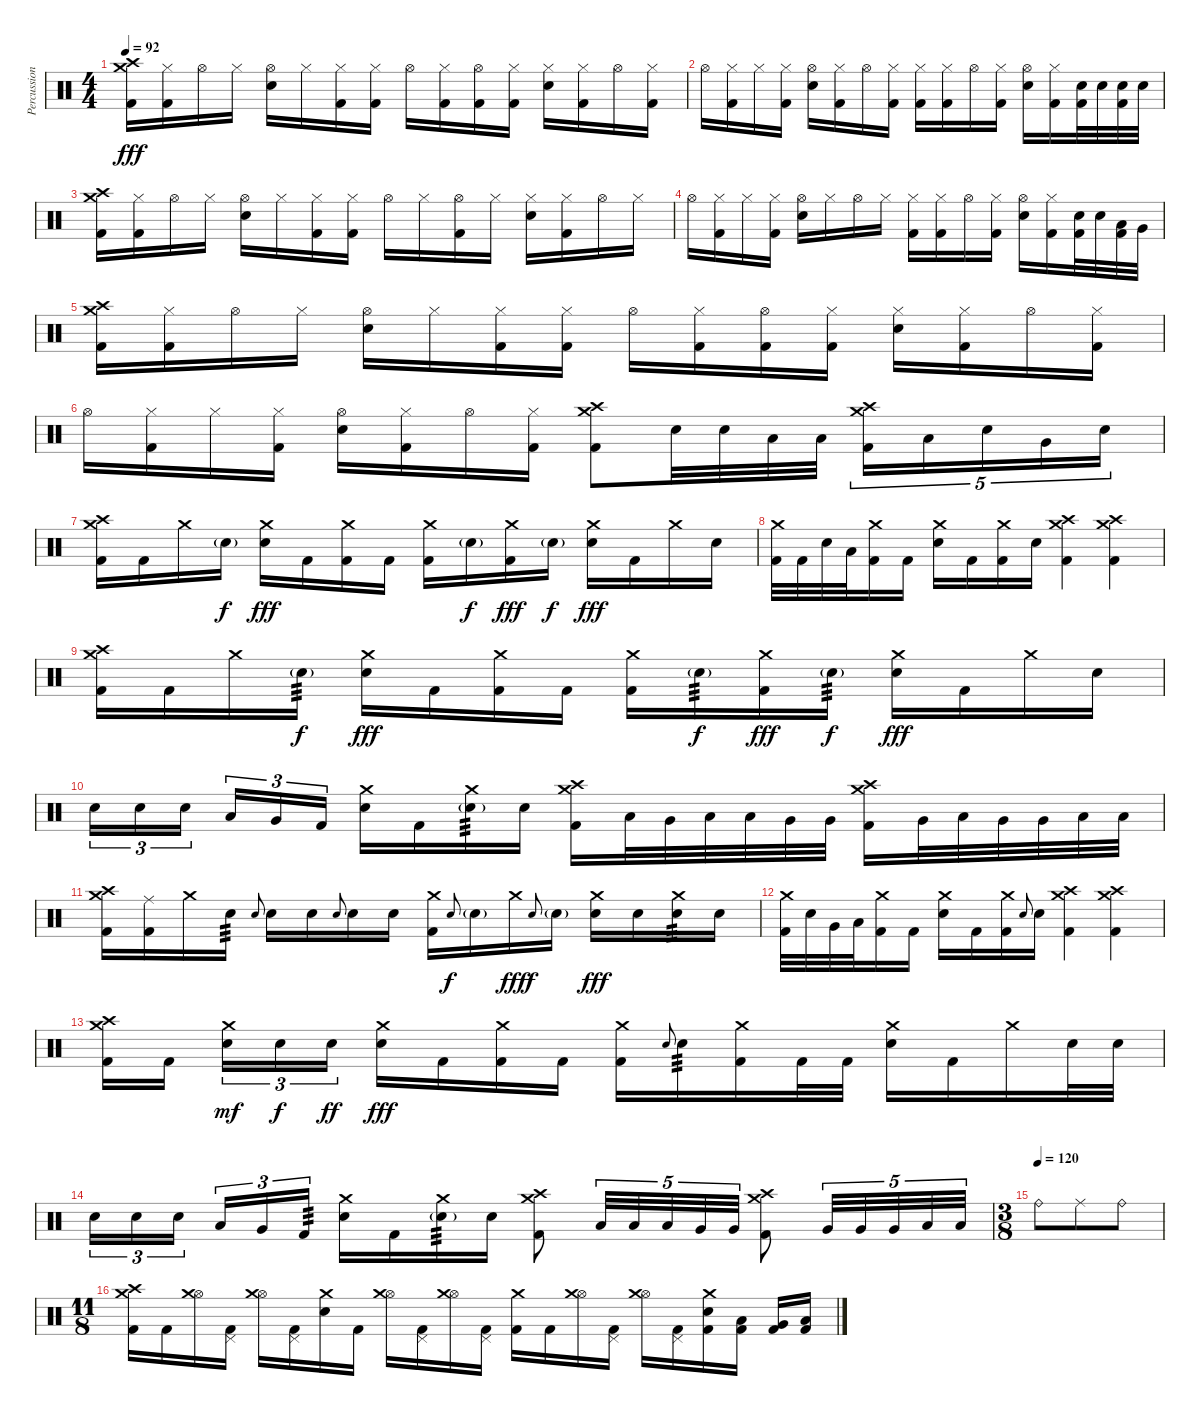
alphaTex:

\track ("Percussion" "Percussion") {instrument percussion}
\staff {score}
\articulation defaults
\ts (4 4)
\tempo 92
\clef neutral
\ks c
("Crash high (hit)" "Crash medium (hit)" "Kick (hit) 2").16{dy fff} ("Hi-Hat (closed)" "Kick (hit) 2").16 "Hi-Hat (open)".16 "Hi-Hat (closed)".16 ("Hi-Hat (open)" "Electric Snare (hit)").16 "Hi-Hat (closed)".16 ("Hi-Hat (closed)" "Kick (hit) 2").16 ("Hi-Hat (closed)" "Kick (hit) 2").16 "Hi-Hat (open)".16 ("Hi-Hat (closed)" "Kick (hit) 2").16 ("Hi-Hat (open)" "Kick (hit) 2").16 ("Hi-Hat (closed)" "Kick (hit) 2").16 ("Hi-Hat (closed)" "Electric Snare (hit)").16 ("Hi-Hat (closed)" "Kick (hit) 2").16 "Hi-Hat (open)".16 ("Hi-Hat (closed)" "Kick (hit) 2").16 |
"Hi-Hat (open)".16 ("Hi-Hat (closed)" "Kick (hit) 2").16 "Hi-Hat (closed)".16 ("Hi-Hat (closed)" "Kick (hit) 2").16 ("Hi-Hat (open)" "Electric Snare (hit)").16 ("Hi-Hat (closed)" "Kick (hit) 2").16 "Hi-Hat (open)".16 ("Hi-Hat (closed)" "Kick (hit) 2").16 ("Hi-Hat (closed)" "Kick (hit) 2").16 ("Hi-Hat (closed)" "Kick (hit) 2").16 "Hi-Hat (open)".16 ("Hi-Hat (closed)" "Kick (hit) 2").16 ("Hi-Hat (open)" "Electric Snare (hit)").16 ("Hi-Hat (closed)" "Kick (hit) 2").16 ("Electric Snare (hit)" "Kick (hit) 2").32 "Electric Snare (hit)".32 ("Electric Snare (hit)" "Kick (hit) 2").32 "Electric Snare (hit)".32 |
("Crash high (hit)" "Crash medium (hit)" "Kick (hit) 2").16 ("Hi-Hat (closed)" "Kick (hit) 2").16 "Hi-Hat (open)".16 "Hi-Hat (closed)".16 ("Hi-Hat (open)" "Electric Snare (hit)").16 "Hi-Hat (closed)".16 ("Hi-Hat (closed)" "Kick (hit) 2").16 ("Hi-Hat (closed)" "Kick (hit) 2").16 "Hi-Hat (open)".16 "Hi-Hat (closed)".16 ("Hi-Hat (open)" "Kick (hit) 2").16 "Hi-Hat (closed)".16 ("Hi-Hat (closed)" "Electric Snare (hit)").16 ("Hi-Hat (closed)" "Kick (hit) 2").16 "Hi-Hat (open)".16 "Hi-Hat (closed)".16 |
"Hi-Hat (open)".16 ("Hi-Hat (closed)" "Kick (hit) 2").16 "Hi-Hat (closed)".16 ("Hi-Hat (closed)" "Kick (hit) 2").16 ("Hi-Hat (open)" "Electric Snare (hit)").16 "Hi-Hat (closed)".16 "Hi-Hat (open)".16 "Hi-Hat (closed)".16 ("Hi-Hat (closed)" "Kick (hit) 2").16 ("Hi-Hat (closed)" "Kick (hit) 2").16 "Hi-Hat (open)".16 ("Hi-Hat (closed)" "Kick (hit) 2").16 ("Hi-Hat (open)" "Electric Snare (hit)").16 ("Hi-Hat (closed)" "Kick (hit) 2").16 ("Electric Snare (hit)" "Kick (hit) 2").32 "Electric Snare (hit)".32 ("Low Tom (hit)" "Kick (hit) 2").32 "Very Low Tom (hit)".32 |
("Crash high (hit)" "Crash medium (hit)" "Kick (hit) 2").16 ("Hi-Hat (closed)" "Kick (hit) 2").16 "Hi-Hat (open)".16 "Hi-Hat (closed)".16 ("Hi-Hat (open)" "Electric Snare (hit)").16 "Hi-Hat (closed)".16 ("Hi-Hat (closed)" "Kick (hit) 2").16 ("Hi-Hat (closed)" "Kick (hit) 2").16 "Hi-Hat (open)".16 ("Hi-Hat (closed)" "Kick (hit) 2").16 ("Hi-Hat (open)" "Kick (hit) 2").16 ("Hi-Hat (closed)" "Kick (hit) 2").16 ("Hi-Hat (closed)" "Electric Snare (hit)").16 ("Hi-Hat (closed)" "Kick (hit) 2").16 "Hi-Hat (open)".16 ("Hi-Hat (closed)" "Kick (hit) 2").16 |
"Hi-Hat (open)".16 ("Hi-Hat (closed)" "Kick (hit) 2").16 "Hi-Hat (closed)".16 ("Hi-Hat (closed)" "Kick (hit) 2").16 ("Hi-Hat (open)" "Electric Snare (hit)").16 ("Hi-Hat (closed)" "Kick (hit) 2").16 "Hi-Hat (open)".16 ("Hi-Hat (closed)" "Kick (hit) 2").16 ("Crash high (hit)" "Crash medium (hit)" "Kick (hit) 2").8 "Electric Snare (hit)".32 "Electric Snare (hit)".32 "Low Tom (hit)".32 "Low Tom (hit)".32 ("Crash high (hit)" "Crash medium (hit)" "Kick (hit) 2").16{tu (5 4)} "Low Tom (hit)".16{tu (5 4)} "Electric Snare (hit)".16{tu (5 4)} "Very Low Tom (hit)".16{tu (5 4)} "Electric Snare (hit)".16{tu (5 4)} |
("Crash high (hit)" "Crash medium (hit)" "Kick (hit) 2").16 "Kick (hit) 2".16 "Crash medium (hit)".16 "Electric Snare (hit)"{g}.16{dy f} ("Crash medium (hit)" "Electric Snare (hit)").16{dy fff} "Kick (hit) 2".16 ("Crash medium (hit)" "Kick (hit) 2").16 "Kick (hit) 2".16 ("Crash medium (hit)" "Kick (hit) 2").16 "Electric Snare (hit)"{g}.16{dy f} ("Crash medium (hit)" "Kick (hit) 2").16{dy fff} "Electric Snare (hit)"{g}.16{dy f} ("Crash medium (hit)" "Electric Snare (hit)").16{dy fff} "Kick (hit) 2".16 "Crash medium (hit)".16 "Electric Snare (hit)".16 |
("Crash medium (hit)" "Kick (hit) 2").32 "Kick (hit) 2".32 "Electric Snare (hit)".32 "Low Tom (hit)".32 ("Crash medium (hit)" "Kick (hit) 2").16 "Kick (hit) 2".16 ("Crash medium (hit)" "Electric Snare (hit)").16 "Kick (hit) 2".16 ("Crash medium (hit)" "Kick (hit) 2").16 "Electric Snare (hit)".16 ("Crash high (hit)" "Crash medium (hit)" "Kick (hit) 2").4 ("Crash high (hit)" "Crash medium (hit)" "Kick (hit) 2").4 |
("Crash high (hit)" "Crash medium (hit)" "Kick (hit) 2").16 "Kick (hit) 2".16 "Crash medium (hit)".16 "Electric Snare (hit)"{g}.16{tp 3 dy f} ("Crash medium (hit)" "Electric Snare (hit)").16{dy fff} "Kick (hit) 2".16 ("Crash medium (hit)" "Kick (hit) 2").16 "Kick (hit) 2".16 ("Crash medium (hit)" "Kick (hit) 2").16 "Electric Snare (hit)"{g}.16{tp 3 dy f} ("Crash medium (hit)" "Kick (hit) 2").16{dy fff} "Electric Snare (hit)"{g}.16{tp 3 dy f} ("Crash medium (hit)" "Electric Snare (hit)").16{dy fff} "Kick (hit) 2".16 "Crash medium (hit)".16 "Electric Snare (hit)".16 |
"Electric Snare (hit)".16{tu (3 2)} "Electric Snare (hit)".16{tu (3 2)} "Electric Snare (hit)".16{tu (3 2) beam splitsecondary} "Low Tom (hit)".16{tu (3 2)} "Very Low Tom (hit)".16{tu (3 2)} "Kick (hit) 2".16{tu (3 2)} ("Crash medium (hit)" "Electric Snare (hit)").16 "Kick (hit) 2".16 ("Crash medium (hit)" "Electric Snare (hit)"{g}).16{tp 3} "Electric Snare (hit)".16 ("Crash high (hit)" "Crash medium (hit)" "Kick (hit) 2").16 "Low Tom (hit)".32 "Very Low Tom (hit)".32 "Low Tom (hit)".32 "Low Tom (hit)".32 "Very Low Tom (hit)".32 "Very Low Tom (hit)".32 ("Crash high (hit)" "Crash medium (hit)" "Kick (hit) 2").16 "Very Low Tom (hit)".32 "Low Tom (hit)".32 "Very Low Tom (hit)".32 "Very Low Tom (hit)".32 "Low Tom (hit)".32 "Low Tom (hit)".32 |
("Crash high (hit)" "Crash medium (hit)" "Kick (hit) 2").16 ("Ride (middle)" "Kick (hit) 2").16 "Crash medium (hit)".16 "Electric Snare (hit)".16{tp 3} "Electric Snare (hit)".8{gr onbeat} "Electric Snare (hit)".16 "Electric Snare (hit)".16 "Electric Snare (hit)".8{gr onbeat} "Electric Snare (hit)".16 "Electric Snare (hit)".16 ("Crash medium (hit)" "Kick (hit) 2").16 "Electric Snare (hit)".8{gr onbeat dy f} "Electric Snare (hit)"{g}.16 "Crash medium (hit)".16{dy fff} "Electric Snare (hit)".8{gr onbeat dy f} "Electric Snare (hit)"{g}.16 ("Crash medium (hit)" "Electric Snare (hit)").16{dy fff} "Electric Snare (hit)".16 ("Crash medium (hit)" "Electric Snare (hit)").16{tp 3} "Electric Snare (hit)".16 |
("Crash medium (hit)" "Kick (hit) 2").32 "Electric Snare (hit)".32 "Very Low Tom (hit)".32 "Low Floor Tom (hit)".32 ("Crash medium (hit)" "Kick (hit) 2").16 "Kick (hit) 2".16 ("Crash medium (hit)" "Electric Snare (hit)").16 "Kick (hit) 2".16 ("Crash medium (hit)" "Kick (hit) 2").16 "Electric Snare (hit)".8{gr onbeat} "Electric Snare (hit)".16 ("Crash high (hit)" "Crash medium (hit)" "Kick (hit) 2").4 ("Crash high (hit)" "Crash medium (hit)" "Kick (hit) 2").4 |
("Crash high (hit)" "Crash medium (hit)" "Kick (hit) 2").16 "Kick (hit) 2".16{beam splitsecondary} ("Crash medium (hit)" "Electric Snare (hit)").16{tu (3 2) dy mf} "Electric Snare (hit)".16{tu (3 2) dy f} "Electric Snare (hit)".16{tu (3 2) dy ff} ("Crash medium (hit)" "Electric Snare (hit)").16{dy fff} "Kick (hit) 2".16 ("Crash medium (hit)" "Kick (hit) 2").16 "Kick (hit) 2".16 ("Crash medium (hit)" "Kick (hit) 2").16 "Electric Snare (hit)".8{gr onbeat} "Electric Snare (hit)".16{tp 3} ("Crash medium (hit)" "Kick (hit) 2").16 "Kick (hit) 2".32 "Kick (hit) 2".32 ("Crash medium (hit)" "Electric Snare (hit)").16 "Kick (hit) 2".16 "Crash medium (hit)".16 "Electric Snare (hit)".32 "Electric Snare (hit)".32 |
"Electric Snare (hit)".16{tu (3 2)} "Electric Snare (hit)".16{tu (3 2)} "Electric Snare (hit)".16{tu (3 2) beam splitsecondary} "Low Tom (hit)".16{tu (3 2)} "Very Low Tom (hit)".16{tu (3 2)} "Kick (hit) 2".16{tu (3 2) tp 3} ("Crash medium (hit)" "Electric Snare (hit)").16 "Kick (hit) 2".16 ("Crash medium (hit)" "Electric Snare (hit)"{g}).16{tp 3} "Electric Snare (hit)".16 ("Crash high (hit)" "Crash medium (hit)" "Kick (hit) 2").8 "Low Tom (hit)".32{tu (5 4)} "Low Tom (hit)".32{tu (5 4)} "Low Tom (hit)".32{tu (5 4)} "Very Low Tom (hit)".32{tu (5 4)} "Very Low Tom (hit)".32{tu (5 4)} ("Crash high (hit)" "Crash medium (hit)" "Kick (hit) 2").8 "Very Low Tom (hit)".32{tu (5 4)} "Very Low Tom (hit)".32{tu (5 4)} "Very Low Tom (hit)".32{tu (5 4)} "Low Floor Tom (hit)".32{tu (5 4)} "Low Floor Tom (hit)".32{tu (5 4)} |
\ts (3 8)
\tempo (120)
"Ride (bell)".8 "Ride (middle)".8 "Ride (bell)".8 |
\ts (11 8)
("Crash high (hit)" "Crash medium (hit)" "Kick (hit) 2").16 "Kick (hit) 2".16 ("Hi-Hat (open)" "Crash medium (hit)").16 ("Pedal Hi-Hat (hit)" "Kick (hit) 2").16 ("Hi-Hat (open)" "Crash medium (hit)").16 ("Pedal Hi-Hat (hit)" "Kick (hit) 2").16 ("Crash medium (hit)" "Electric Snare (hit)").16 "Kick (hit) 2".16 ("Hi-Hat (open)" "Crash medium (hit)").16 ("Pedal Hi-Hat (hit)" "Kick (hit) 2").16 ("Hi-Hat (open)" "Crash medium (hit)").16 ("Pedal Hi-Hat (hit)" "Kick (hit) 2").16 ("Crash medium (hit)" "Kick (hit) 2").16 "Kick (hit) 2".16 ("Hi-Hat (open)" "Crash medium (hit)").16 ("Pedal Hi-Hat (hit)" "Kick (hit) 2").16 ("Hi-Hat (open)" "Crash medium (hit)").16 ("Pedal Hi-Hat (hit)" "Kick (hit) 2").16 ("Crash medium (hit)" "Electric Snare (hit)" "Kick (hit) 2").16 ("Low Tom (hit)" "Kick (hit) 2").16 ("Very Low Tom (hit)" "Kick (hit) 2").16 ("Low Floor Tom (hit)" "Kick (hit) 2").16
